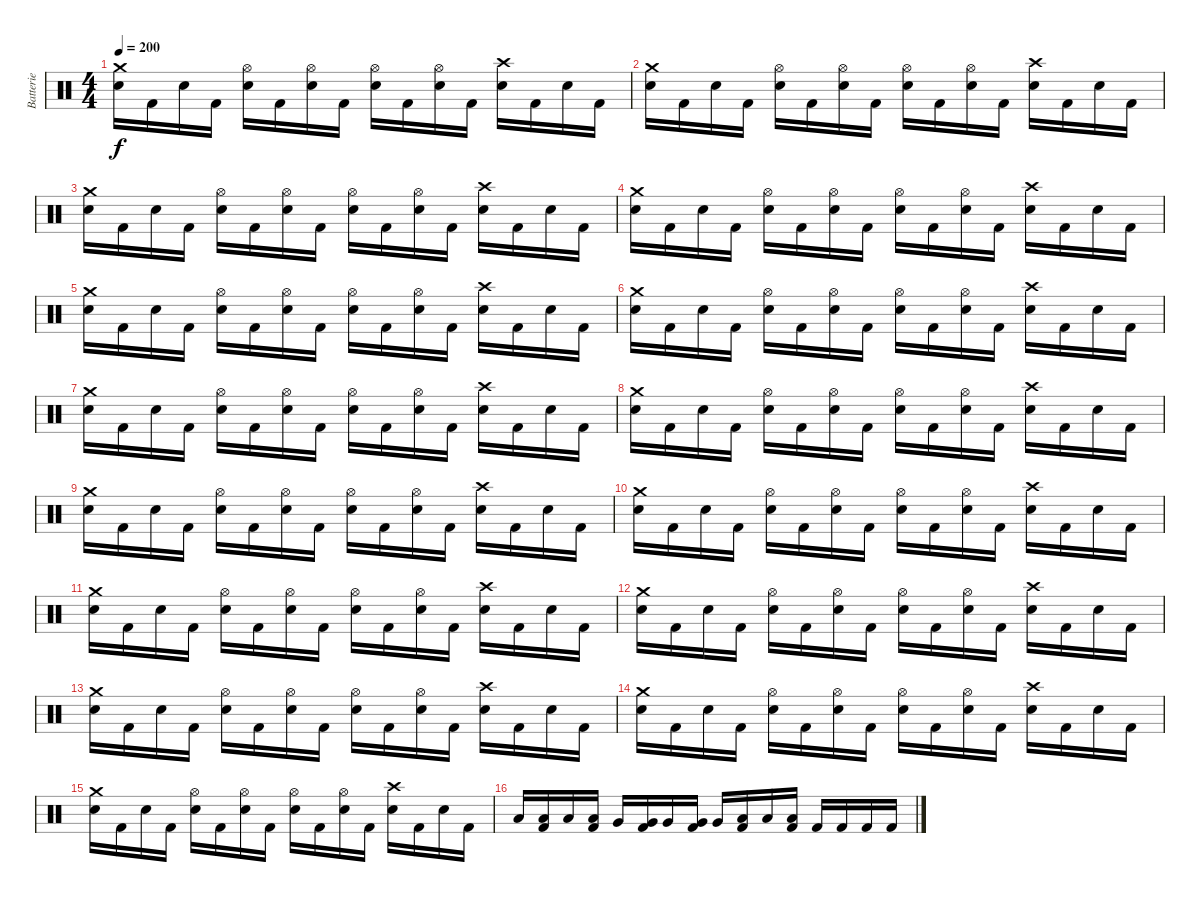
\track ("Batterie" "Batterie") {instrument percussion}
\staff {score}
\articulation defaults
\ts (4 4)
\tempo 200
\clef neutral
\ks c
("Snare (hit) 2" "Crash medium (hit)").16{dy f} "Kick (hit) 2".16 "Snare (hit) 2".16 "Kick (hit) 2".16 ("Snare (hit) 2" "Hi-Hat (open)").16 "Kick (hit) 2".16 ("Snare (hit) 2" "Hi-Hat (open)").16 "Kick (hit) 2".16 ("Snare (hit) 2" "Hi-Hat (open)").16 "Kick (hit) 2".16 ("Snare (hit) 2" "Hi-Hat (open)").16 "Kick (hit) 2".16 ("Snare (hit) 2" "Crash high (hit)").16 "Kick (hit) 2".16 "Snare (hit) 2".16 "Kick (hit) 2".16 |
("Snare (hit) 2" "Crash medium (hit)").16 "Kick (hit) 2".16 "Snare (hit) 2".16 "Kick (hit) 2".16 ("Snare (hit) 2" "Hi-Hat (open)").16 "Kick (hit) 2".16 ("Snare (hit) 2" "Hi-Hat (open)").16 "Kick (hit) 2".16 ("Snare (hit) 2" "Hi-Hat (open)").16 "Kick (hit) 2".16 ("Snare (hit) 2" "Hi-Hat (open)").16 "Kick (hit) 2".16 ("Snare (hit) 2" "Crash high (hit)").16 "Kick (hit) 2".16 "Snare (hit) 2".16 "Kick (hit) 2".16 |
("Snare (hit) 2" "Crash medium (hit)").16 "Kick (hit) 2".16 "Snare (hit) 2".16 "Kick (hit) 2".16 ("Snare (hit) 2" "Hi-Hat (open)").16 "Kick (hit) 2".16 ("Snare (hit) 2" "Hi-Hat (open)").16 "Kick (hit) 2".16 ("Snare (hit) 2" "Hi-Hat (open)").16 "Kick (hit) 2".16 ("Snare (hit) 2" "Hi-Hat (open)").16 "Kick (hit) 2".16 ("Snare (hit) 2" "Crash high (hit)").16 "Kick (hit) 2".16 "Snare (hit) 2".16 "Kick (hit) 2".16 |
("Snare (hit) 2" "Crash medium (hit)").16 "Kick (hit) 2".16 "Snare (hit) 2".16 "Kick (hit) 2".16 ("Snare (hit) 2" "Hi-Hat (open)").16 "Kick (hit) 2".16 ("Snare (hit) 2" "Hi-Hat (open)").16 "Kick (hit) 2".16 ("Snare (hit) 2" "Hi-Hat (open)").16 "Kick (hit) 2".16 ("Snare (hit) 2" "Hi-Hat (open)").16 "Kick (hit) 2".16 ("Snare (hit) 2" "Crash high (hit)").16 "Kick (hit) 2".16 "Snare (hit) 2".16 "Kick (hit) 2".16 |
("Snare (hit) 2" "Crash medium (hit)").16 "Kick (hit) 2".16 "Snare (hit) 2".16 "Kick (hit) 2".16 ("Snare (hit) 2" "Hi-Hat (open)").16 "Kick (hit) 2".16 ("Snare (hit) 2" "Hi-Hat (open)").16 "Kick (hit) 2".16 ("Snare (hit) 2" "Hi-Hat (open)").16 "Kick (hit) 2".16 ("Snare (hit) 2" "Hi-Hat (open)").16 "Kick (hit) 2".16 ("Snare (hit) 2" "Crash high (hit)").16 "Kick (hit) 2".16 "Snare (hit) 2".16 "Kick (hit) 2".16 |
("Snare (hit) 2" "Crash medium (hit)").16 "Kick (hit) 2".16 "Snare (hit) 2".16 "Kick (hit) 2".16 ("Snare (hit) 2" "Hi-Hat (open)").16 "Kick (hit) 2".16 ("Snare (hit) 2" "Hi-Hat (open)").16 "Kick (hit) 2".16 ("Snare (hit) 2" "Hi-Hat (open)").16 "Kick (hit) 2".16 ("Snare (hit) 2" "Hi-Hat (open)").16 "Kick (hit) 2".16 ("Snare (hit) 2" "Crash high (hit)").16 "Kick (hit) 2".16 "Snare (hit) 2".16 "Kick (hit) 2".16 |
("Snare (hit) 2" "Crash medium (hit)").16 "Kick (hit) 2".16 "Snare (hit) 2".16 "Kick (hit) 2".16 ("Snare (hit) 2" "Hi-Hat (open)").16 "Kick (hit) 2".16 ("Snare (hit) 2" "Hi-Hat (open)").16 "Kick (hit) 2".16 ("Snare (hit) 2" "Hi-Hat (open)").16 "Kick (hit) 2".16 ("Snare (hit) 2" "Hi-Hat (open)").16 "Kick (hit) 2".16 ("Snare (hit) 2" "Crash high (hit)").16 "Kick (hit) 2".16 "Snare (hit) 2".16 "Kick (hit) 2".16 |
("Snare (hit) 2" "Crash medium (hit)").16 "Kick (hit) 2".16 "Snare (hit) 2".16 "Kick (hit) 2".16 ("Snare (hit) 2" "Hi-Hat (open)").16 "Kick (hit) 2".16 ("Snare (hit) 2" "Hi-Hat (open)").16 "Kick (hit) 2".16 ("Snare (hit) 2" "Hi-Hat (open)").16 "Kick (hit) 2".16 ("Snare (hit) 2" "Hi-Hat (open)").16 "Kick (hit) 2".16 ("Snare (hit) 2" "Crash high (hit)").16 "Kick (hit) 2".16 "Snare (hit) 2".16 "Kick (hit) 2".16 |
("Snare (hit) 2" "Crash medium (hit)").16 "Kick (hit) 2".16 "Snare (hit) 2".16 "Kick (hit) 2".16 ("Snare (hit) 2" "Hi-Hat (open)").16 "Kick (hit) 2".16 ("Snare (hit) 2" "Hi-Hat (open)").16 "Kick (hit) 2".16 ("Snare (hit) 2" "Hi-Hat (open)").16 "Kick (hit) 2".16 ("Snare (hit) 2" "Hi-Hat (open)").16 "Kick (hit) 2".16 ("Snare (hit) 2" "Crash high (hit)").16 "Kick (hit) 2".16 "Snare (hit) 2".16 "Kick (hit) 2".16 |
("Snare (hit) 2" "Crash medium (hit)").16 "Kick (hit) 2".16 "Snare (hit) 2".16 "Kick (hit) 2".16 ("Snare (hit) 2" "Hi-Hat (open)").16 "Kick (hit) 2".16 ("Snare (hit) 2" "Hi-Hat (open)").16 "Kick (hit) 2".16 ("Snare (hit) 2" "Hi-Hat (open)").16 "Kick (hit) 2".16 ("Snare (hit) 2" "Hi-Hat (open)").16 "Kick (hit) 2".16 ("Snare (hit) 2" "Crash high (hit)").16 "Kick (hit) 2".16 "Snare (hit) 2".16 "Kick (hit) 2".16 |
("Snare (hit) 2" "Crash medium (hit)").16 "Kick (hit) 2".16 "Snare (hit) 2".16 "Kick (hit) 2".16 ("Snare (hit) 2" "Hi-Hat (open)").16 "Kick (hit) 2".16 ("Snare (hit) 2" "Hi-Hat (open)").16 "Kick (hit) 2".16 ("Snare (hit) 2" "Hi-Hat (open)").16 "Kick (hit) 2".16 ("Snare (hit) 2" "Hi-Hat (open)").16 "Kick (hit) 2".16 ("Snare (hit) 2" "Crash high (hit)").16 "Kick (hit) 2".16 "Snare (hit) 2".16 "Kick (hit) 2".16 |
("Snare (hit) 2" "Crash medium (hit)").16 "Kick (hit) 2".16 "Snare (hit) 2".16 "Kick (hit) 2".16 ("Snare (hit) 2" "Hi-Hat (open)").16 "Kick (hit) 2".16 ("Snare (hit) 2" "Hi-Hat (open)").16 "Kick (hit) 2".16 ("Snare (hit) 2" "Hi-Hat (open)").16 "Kick (hit) 2".16 ("Snare (hit) 2" "Hi-Hat (open)").16 "Kick (hit) 2".16 ("Snare (hit) 2" "Crash high (hit)").16 "Kick (hit) 2".16 "Snare (hit) 2".16 "Kick (hit) 2".16 |
("Snare (hit) 2" "Crash medium (hit)").16 "Kick (hit) 2".16 "Snare (hit) 2".16 "Kick (hit) 2".16 ("Snare (hit) 2" "Hi-Hat (open)").16 "Kick (hit) 2".16 ("Snare (hit) 2" "Hi-Hat (open)").16 "Kick (hit) 2".16 ("Snare (hit) 2" "Hi-Hat (open)").16 "Kick (hit) 2".16 ("Snare (hit) 2" "Hi-Hat (open)").16 "Kick (hit) 2".16 ("Snare (hit) 2" "Crash high (hit)").16 "Kick (hit) 2".16 "Snare (hit) 2".16 "Kick (hit) 2".16 |
("Snare (hit) 2" "Crash medium (hit)").16 "Kick (hit) 2".16 "Snare (hit) 2".16 "Kick (hit) 2".16 ("Snare (hit) 2" "Hi-Hat (open)").16 "Kick (hit) 2".16 ("Snare (hit) 2" "Hi-Hat (open)").16 "Kick (hit) 2".16 ("Snare (hit) 2" "Hi-Hat (open)").16 "Kick (hit) 2".16 ("Snare (hit) 2" "Hi-Hat (open)").16 "Kick (hit) 2".16 ("Snare (hit) 2" "Crash high (hit)").16 "Kick (hit) 2".16 "Snare (hit) 2".16 "Kick (hit) 2".16 |
("Snare (hit) 2" "Crash medium (hit)").16 "Kick (hit) 2".16 "Snare (hit) 2".16 "Kick (hit) 2".16 ("Snare (hit) 2" "Hi-Hat (open)").16 "Kick (hit) 2".16 ("Snare (hit) 2" "Hi-Hat (open)").16 "Kick (hit) 2".16 ("Snare (hit) 2" "Hi-Hat (open)").16 "Kick (hit) 2".16 ("Snare (hit) 2" "Hi-Hat (open)").16 "Kick (hit) 2".16 ("Snare (hit) 2" "Crash high (hit)").16 "Kick (hit) 2".16 "Snare (hit) 2".16 "Kick (hit) 2".16 |
"Low Tom (hit)".16 ("Low Tom (hit)" "Kick (hit) 2").16 "Low Tom (hit)".16 ("Low Tom (hit)" "Kick (hit) 2").16 "Very Low Tom (hit)".16 ("Very Low Tom (hit)" "Kick (hit) 2").16 "Very Low Tom (hit)".16 ("Very Low Tom (hit)" "Kick (hit) 2").16 "Very Low Tom (hit)".16 ("Low Floor Tom (hit)" "Kick (hit) 2").16 "Low Floor Tom (hit)".16 ("Low Floor Tom (hit)" "Kick (hit) 2").16 "Kick (hit) 2".16 "Kick (hit) 2".16 "Kick (hit) 2".16 "Kick (hit) 2".16
